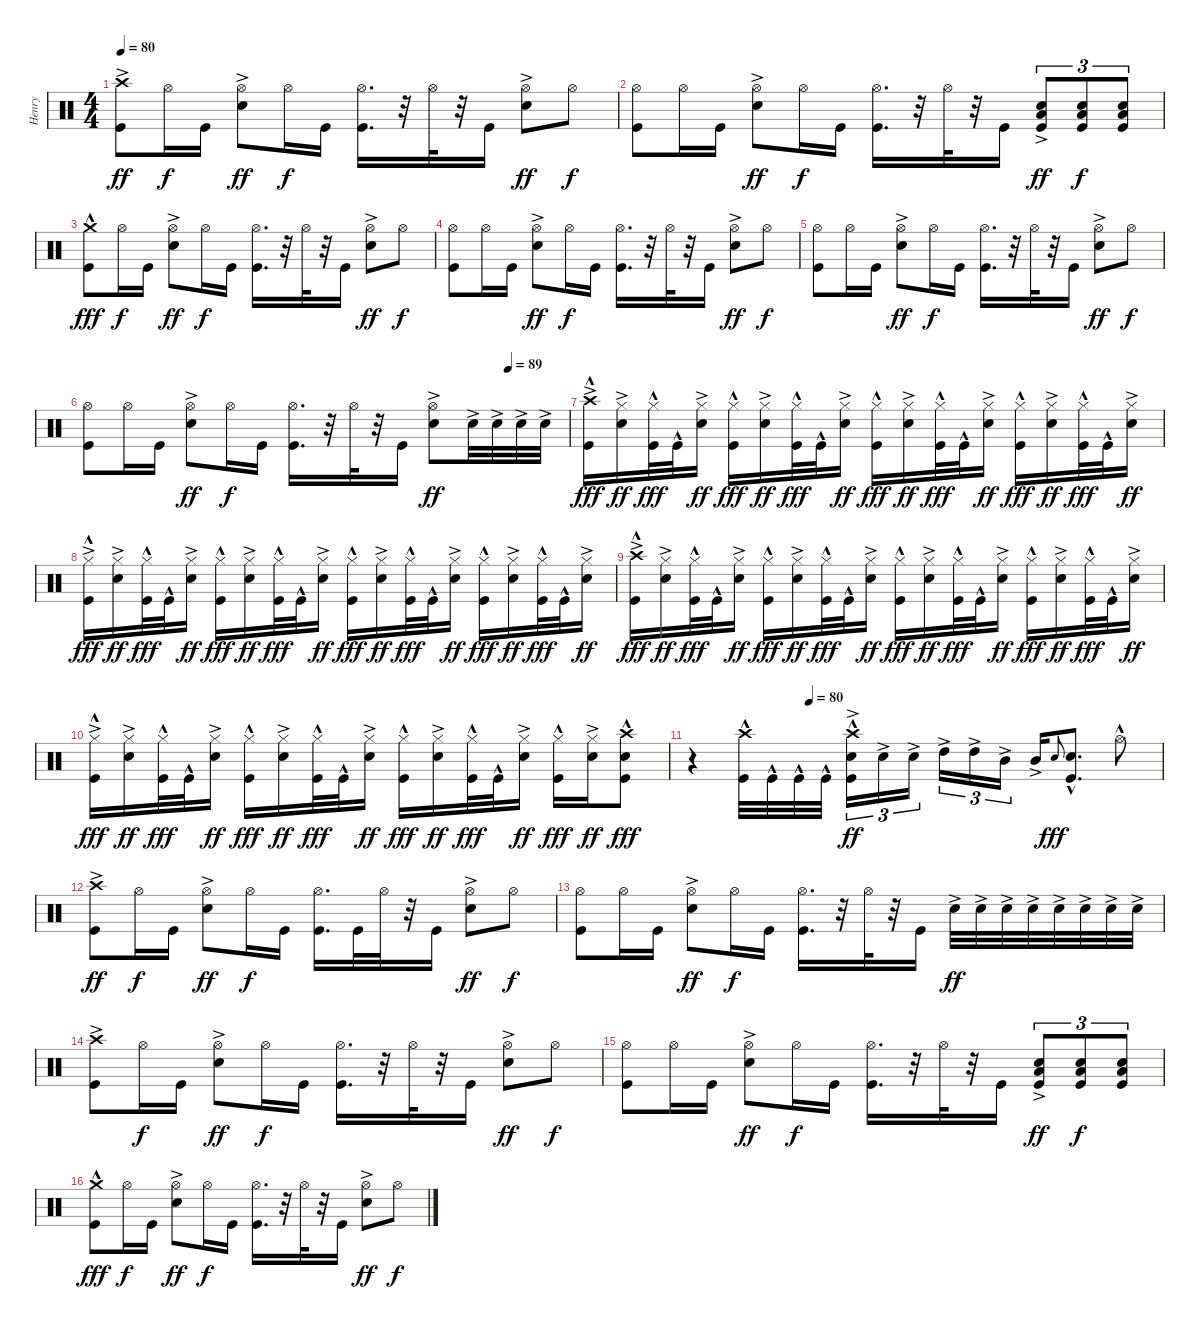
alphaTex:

\track ("Henry" "Henry") {instrument percussion}
\staff {score}
\articulation defaults
\ts (4 4)
\tempo 80
\clef neutral
\ks c
("Crash high (hit)"{ac} "Kick (hit)").8{dy ff} "Hi-Hat (open)".16{dy f} "Kick (hit)".16 ("Hi-Hat (open)" "Snare (hit) 2"{ac}).8{dy ff} "Hi-Hat (open)".16{dy f} "Kick (hit)".16 ("Hi-Hat (open)" "Kick (hit)").16{d} r.32 "Hi-Hat (open)".32 r.32 "Kick (hit)".16 ("Hi-Hat (open)" "Snare (hit) 2"{ac}).8{dy ff} "Hi-Hat (open)".8{dy f} |
("Hi-Hat (open)" "Kick (hit)").8 "Hi-Hat (open)".16 "Kick (hit)".16 ("Hi-Hat (open)" "Snare (hit) 2"{ac}).8{dy ff} "Hi-Hat (open)".16{dy f} "Kick (hit)".16 ("Hi-Hat (open)" "Kick (hit)").16{d} r.32 "Hi-Hat (open)".32 r.32 "Kick (hit)".16 ("Snare (hit) 2"{ac} "Low Tom (hit)" "Kick (hit)").8{tu (3 2) dy ff} ("Snare (hit) 2" "Low Tom (hit)" "Kick (hit)").8{tu (3 2) dy f} ("Snare (hit) 2" "Low Tom (hit)" "Kick (hit)").8{tu (3 2)} |
("Crash medium (hit)"{hac} "Kick (hit)").8{dy fff} "Hi-Hat (open)".16{dy f} "Kick (hit)".16 ("Hi-Hat (open)" "Snare (hit) 2"{ac}).8{dy ff} "Hi-Hat (open)".16{dy f} "Kick (hit)".16 ("Hi-Hat (open)" "Kick (hit)").16{d} r.32 "Hi-Hat (open)".32 r.32 "Kick (hit)".16 ("Hi-Hat (open)" "Snare (hit) 2"{ac}).8{dy ff} "Hi-Hat (open)".8{dy f} |
("Hi-Hat (open)" "Kick (hit)").8 "Hi-Hat (open)".16 "Kick (hit)".16 ("Hi-Hat (open)" "Snare (hit) 2"{ac}).8{dy ff} "Hi-Hat (open)".16{dy f} "Kick (hit)".16 ("Hi-Hat (open)" "Kick (hit)").16{d} r.32 "Hi-Hat (open)".32 r.32 "Kick (hit)".16 ("Hi-Hat (open)" "Snare (hit) 2"{ac}).8{dy ff} "Hi-Hat (open)".8{dy f} |
("Hi-Hat (open)" "Kick (hit)").8 "Hi-Hat (open)".16 "Kick (hit)".16 ("Hi-Hat (open)" "Snare (hit) 2"{ac}).8{dy ff} "Hi-Hat (open)".16{dy f} "Kick (hit)".16 ("Hi-Hat (open)" "Kick (hit)").16{d} r.32 "Hi-Hat (open)".32 r.32 "Kick (hit)".16 ("Hi-Hat (open)" "Snare (hit) 2"{ac}).8{dy ff} "Hi-Hat (open)".8{dy f} |
\tempo (89 0.875)
("Hi-Hat (open)" "Kick (hit)").8 "Hi-Hat (open)".16 "Kick (hit)".16 ("Hi-Hat (open)" "Snare (hit) 2"{ac}).8{dy ff} "Hi-Hat (open)".16{dy f} "Kick (hit)".16 ("Hi-Hat (open)" "Kick (hit)").16{d} r.32 "Hi-Hat (open)".32 r.32 "Kick (hit)".16 ("Hi-Hat (open)" "Snare (hit) 2"{ac}).8{dy ff} "Snare (hit) 2"{ac}.32 "Snare (hit) 2"{ac}.32 "Snare (hit) 2"{ac}.32 "Snare (hit) 2"{ac}.32 |
("Crash high (hit)"{ac} "Kick (hit)"{hac}).16{dy fff} ("Hi-Hat (closed)" "Snare (hit) 2"{ac}).16{dy ff} ("Hi-Hat (closed)" "Kick (hit)"{hac}).32{dy fff} "Kick (hit)"{hac}.32 ("Hi-Hat (closed)" "Snare (hit) 2"{ac}).16{dy ff} ("Hi-Hat (closed)" "Kick (hit)"{hac}).16{dy fff} ("Hi-Hat (closed)" "Snare (hit) 2"{ac}).16{dy ff} ("Hi-Hat (closed)" "Kick (hit)"{hac}).32{dy fff} "Kick (hit)"{hac}.32 ("Hi-Hat (closed)" "Snare (hit) 2"{ac}).16{dy ff} ("Hi-Hat (closed)" "Kick (hit)"{hac}).16{dy fff} ("Hi-Hat (closed)" "Snare (hit) 2"{ac}).16{dy ff} ("Hi-Hat (closed)" "Kick (hit)"{hac}).32{dy fff} "Kick (hit)"{hac}.32 ("Hi-Hat (closed)" "Snare (hit) 2"{ac}).16{dy ff} ("Hi-Hat (closed)" "Kick (hit)"{hac}).16{dy fff} ("Hi-Hat (closed)" "Snare (hit) 2"{ac}).16{dy ff} ("Hi-Hat (closed)" "Kick (hit)"{hac}).32{dy fff} "Kick (hit)"{hac}.32 ("Hi-Hat (closed)" "Snare (hit) 2"{ac}).16{dy ff} |
("Hi-Hat (closed)"{ac} "Kick (hit)"{hac}).16{dy fff} ("Hi-Hat (closed)" "Snare (hit) 2"{ac}).16{dy ff} ("Hi-Hat (closed)" "Kick (hit)"{hac}).32{dy fff} "Kick (hit)"{hac}.32 ("Hi-Hat (closed)" "Snare (hit) 2"{ac}).16{dy ff} ("Hi-Hat (closed)" "Kick (hit)"{hac}).16{dy fff} ("Hi-Hat (closed)" "Snare (hit) 2"{ac}).16{dy ff} ("Hi-Hat (closed)" "Kick (hit)"{hac}).32{dy fff} "Kick (hit)"{hac}.32 ("Hi-Hat (closed)" "Snare (hit) 2"{ac}).16{dy ff} ("Hi-Hat (closed)" "Kick (hit)"{hac}).16{dy fff} ("Hi-Hat (closed)" "Snare (hit) 2"{ac}).16{dy ff} ("Hi-Hat (closed)" "Kick (hit)"{hac}).32{dy fff} "Kick (hit)"{hac}.32 ("Hi-Hat (closed)" "Snare (hit) 2"{ac}).16{dy ff} ("Hi-Hat (closed)" "Kick (hit)"{hac}).16{dy fff} ("Hi-Hat (closed)" "Snare (hit) 2"{ac}).16{dy ff} ("Hi-Hat (closed)" "Kick (hit)"{hac}).32{dy fff} "Kick (hit)"{hac}.32 ("Hi-Hat (closed)" "Snare (hit) 2"{ac}).16{dy ff} |
("Crash high (hit)"{ac} "Kick (hit)"{hac}).16{dy fff} ("Hi-Hat (closed)" "Snare (hit) 2"{ac}).16{dy ff} ("Hi-Hat (closed)" "Kick (hit)"{hac}).32{dy fff} "Kick (hit)"{hac}.32 ("Hi-Hat (closed)" "Snare (hit) 2"{ac}).16{dy ff} ("Hi-Hat (closed)" "Kick (hit)"{hac}).16{dy fff} ("Hi-Hat (closed)" "Snare (hit) 2"{ac}).16{dy ff} ("Hi-Hat (closed)" "Kick (hit)"{hac}).32{dy fff} "Kick (hit)"{hac}.32 ("Hi-Hat (closed)" "Snare (hit) 2"{ac}).16{dy ff} ("Hi-Hat (closed)" "Kick (hit)"{hac}).16{dy fff} ("Hi-Hat (closed)" "Snare (hit) 2"{ac}).16{dy ff} ("Hi-Hat (closed)" "Kick (hit)"{hac}).32{dy fff} "Kick (hit)"{hac}.32 ("Hi-Hat (closed)" "Snare (hit) 2"{ac}).16{dy ff} ("Hi-Hat (closed)" "Kick (hit)"{hac}).16{dy fff} ("Hi-Hat (closed)" "Snare (hit) 2"{ac}).16{dy ff} ("Hi-Hat (closed)" "Kick (hit)"{hac}).32{dy fff} "Kick (hit)"{hac}.32 ("Hi-Hat (closed)" "Snare (hit) 2"{ac}).16{dy ff} |
("Hi-Hat (closed)"{ac} "Kick (hit)"{hac}).16{dy fff} ("Hi-Hat (closed)" "Snare (hit) 2"{ac}).16{dy ff} ("Hi-Hat (closed)" "Kick (hit)"{hac}).32{dy fff} "Kick (hit)"{hac}.32 ("Hi-Hat (closed)" "Snare (hit) 2"{ac}).16{dy ff} ("Hi-Hat (closed)" "Kick (hit)"{hac}).16{dy fff} ("Hi-Hat (closed)" "Snare (hit) 2"{ac}).16{dy ff} ("Hi-Hat (closed)" "Kick (hit)"{hac}).32{dy fff} "Kick (hit)"{hac}.32 ("Hi-Hat (closed)" "Snare (hit) 2"{ac}).16{dy ff} ("Hi-Hat (closed)" "Kick (hit)"{hac}).16{dy fff} ("Hi-Hat (closed)" "Snare (hit) 2"{ac}).16{dy ff} ("Hi-Hat (closed)" "Kick (hit)"{hac}).32{dy fff} "Kick (hit)"{hac}.32 ("Hi-Hat (closed)" "Snare (hit) 2"{ac}).16{dy ff} ("Hi-Hat (closed)" "Kick (hit)"{hac}).16{dy fff} ("Hi-Hat (closed)" "Snare (hit) 2"{ac}).16{dy ff} ("Crash high (hit)"{hac} "Snare (hit) 2"{hac} "Kick (hit)"{hac}).8{dy fff} |
\tempo (80 0.25)
r.4 ("Crash high (hit)"{hac} "Kick (hit)"{hac}).32 "Kick (hit)"{hac}.32 "Kick (hit)"{hac}.32 "Kick (hit)"{hac}.32{beam splitsecondary} ("Crash high (hit)"{hac} "Snare (hit) 2"{ac} "Kick (hit)"{ac}).16{tu (3 2) dy ff} "Snare (hit) 2"{ac}.16{tu (3 2)} "Snare (hit) 2"{ac}.16{tu (3 2)} "High Tom (hit)"{ac}.16{tu (3 2)} "High Tom (hit)"{ac}.16{tu (3 2)} "Mid Tom (hit)"{ac}.16{tu (3 2) beam splitsecondary} "Mid Tom (hit)"{ac}.16 "Snare (hit) 2".8{gr onbeat dy fff} ("Snare (hit) 2"{hac} "Kick (hit)").8{d} "Hi-Hat (open)"{hac}.8 |
("Crash high (hit)"{ac} "Kick (hit)").8{dy ff} "Hi-Hat (open)".16{dy f} "Kick (hit)".16 ("Hi-Hat (open)" "Snare (hit) 2"{ac}).8{dy ff} "Hi-Hat (open)".16{dy f} "Kick (hit)".16 ("Hi-Hat (open)" "Kick (hit)").16{d} "Kick (hit)".32 "Hi-Hat (open)".32 r.32 "Kick (hit)".16 ("Hi-Hat (open)" "Snare (hit) 2"{ac}).8{dy ff} "Hi-Hat (open)".8{dy f} |
("Hi-Hat (open)" "Kick (hit)").8 "Hi-Hat (open)".16 "Kick (hit)".16 ("Hi-Hat (open)" "Snare (hit) 2"{ac}).8{dy ff} "Hi-Hat (open)".16{dy f} "Kick (hit)".16 ("Hi-Hat (open)" "Kick (hit)").16{d} r.32 "Hi-Hat (open)".32 r.32 "Kick (hit)".16 "Snare (hit) 2"{ac}.32{dy ff} "Snare (hit) 2"{ac}.32 "Snare (hit) 2"{ac}.32 "Snare (hit) 2"{ac}.32 "Snare (hit) 2"{ac}.32 "Snare (hit) 2"{ac}.32 "Snare (hit) 2"{ac}.32 "Snare (hit) 2"{ac}.32 |
("Crash high (hit)"{ac} "Kick (hit)").8 "Hi-Hat (open)".16{dy f} "Kick (hit)".16 ("Hi-Hat (open)" "Snare (hit) 2"{ac}).8{dy ff} "Hi-Hat (open)".16{dy f} "Kick (hit)".16 ("Hi-Hat (open)" "Kick (hit)").16{d} r.32 "Hi-Hat (open)".32 r.32 "Kick (hit)".16 ("Hi-Hat (open)" "Snare (hit) 2"{ac}).8{dy ff} "Hi-Hat (open)".8{dy f} |
("Hi-Hat (open)" "Kick (hit)").8 "Hi-Hat (open)".16 "Kick (hit)".16 ("Hi-Hat (open)" "Snare (hit) 2"{ac}).8{dy ff} "Hi-Hat (open)".16{dy f} "Kick (hit)".16 ("Hi-Hat (open)" "Kick (hit)").16{d} r.32 "Hi-Hat (open)".32 r.32 "Kick (hit)".16 ("Snare (hit) 2"{ac} "Low Tom (hit)" "Kick (hit)").8{tu (3 2) dy ff} ("Snare (hit) 2" "Low Tom (hit)" "Kick (hit)").8{tu (3 2) dy f} ("Snare (hit) 2" "Low Tom (hit)" "Kick (hit)").8{tu (3 2)} |
("Crash medium (hit)"{hac} "Kick (hit)").8{dy fff} "Hi-Hat (open)".16{dy f} "Kick (hit)".16 ("Hi-Hat (open)" "Snare (hit) 2"{ac}).8{dy ff} "Hi-Hat (open)".16{dy f} "Kick (hit)".16 ("Hi-Hat (open)" "Kick (hit)").16{d} r.32 "Hi-Hat (open)".32 r.32 "Kick (hit)".16 ("Hi-Hat (open)" "Snare (hit) 2"{ac}).8{dy ff} "Hi-Hat (open)".8{dy f}
